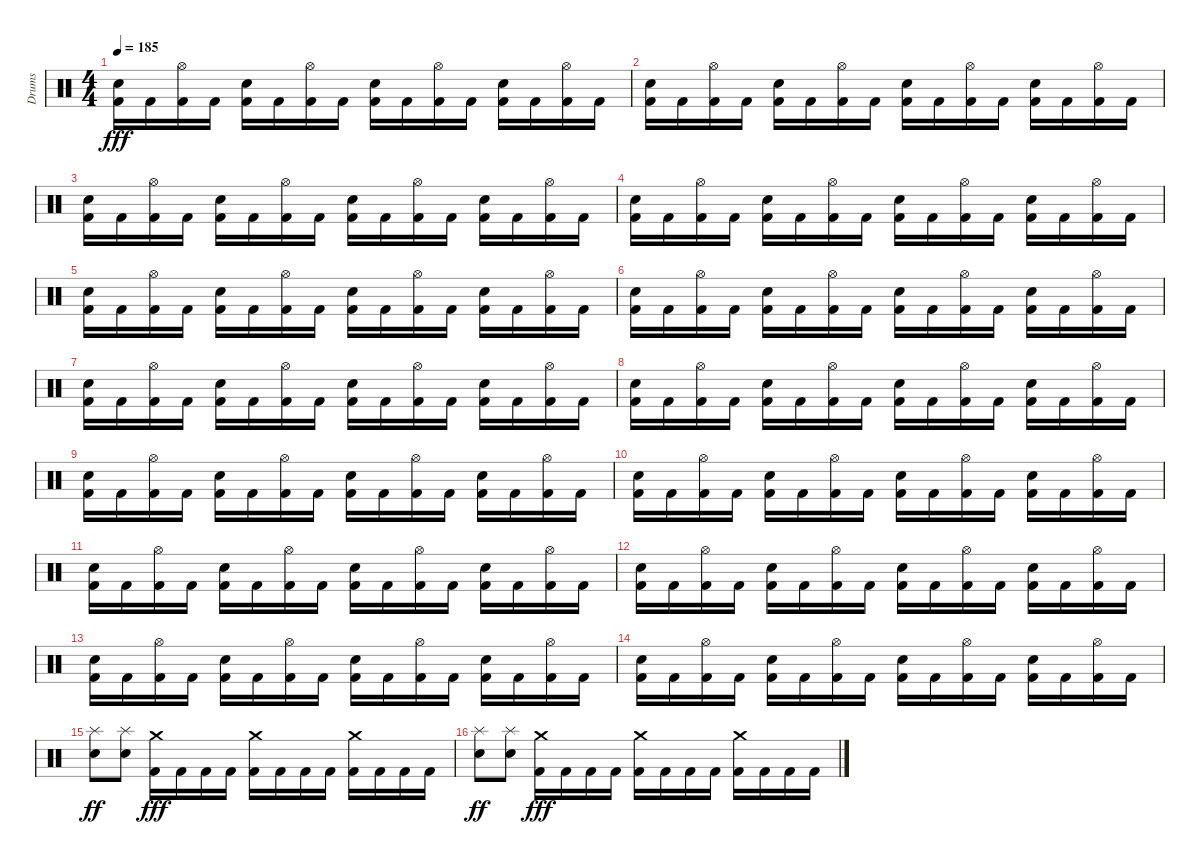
\track ("Drums" "Drums") {instrument percussion}
\staff {score}
\articulation defaults
\ts (4 4)
\tempo 185
\clef neutral
\ks c
("Electric Snare (hit)" "Kick (hit) 2").16{dy fff} "Kick (hit) 2".16 ("Hi-Hat (open)" "Kick (hit) 2").16 "Kick (hit) 2".16 ("Electric Snare (hit)" "Kick (hit) 2").16 "Kick (hit) 2".16 ("Hi-Hat (open)" "Kick (hit) 2").16 "Kick (hit) 2".16 ("Electric Snare (hit)" "Kick (hit) 2").16 "Kick (hit) 2".16 ("Hi-Hat (open)" "Kick (hit) 2").16 "Kick (hit) 2".16 ("Electric Snare (hit)" "Kick (hit) 2").16 "Kick (hit) 2".16 ("Hi-Hat (open)" "Kick (hit) 2").16 "Kick (hit) 2".16 |
("Electric Snare (hit)" "Kick (hit) 2").16 "Kick (hit) 2".16 ("Hi-Hat (open)" "Kick (hit) 2").16 "Kick (hit) 2".16 ("Electric Snare (hit)" "Kick (hit) 2").16 "Kick (hit) 2".16 ("Hi-Hat (open)" "Kick (hit) 2").16 "Kick (hit) 2".16 ("Electric Snare (hit)" "Kick (hit) 2").16 "Kick (hit) 2".16 ("Hi-Hat (open)" "Kick (hit) 2").16 "Kick (hit) 2".16 ("Electric Snare (hit)" "Kick (hit) 2").16 "Kick (hit) 2".16 ("Hi-Hat (open)" "Kick (hit) 2").16 "Kick (hit) 2".16 |
("Electric Snare (hit)" "Kick (hit) 2").16 "Kick (hit) 2".16 ("Hi-Hat (open)" "Kick (hit) 2").16 "Kick (hit) 2".16 ("Electric Snare (hit)" "Kick (hit) 2").16 "Kick (hit) 2".16 ("Hi-Hat (open)" "Kick (hit) 2").16 "Kick (hit) 2".16 ("Electric Snare (hit)" "Kick (hit) 2").16 "Kick (hit) 2".16 ("Hi-Hat (open)" "Kick (hit) 2").16 "Kick (hit) 2".16 ("Electric Snare (hit)" "Kick (hit) 2").16 "Kick (hit) 2".16 ("Hi-Hat (open)" "Kick (hit) 2").16 "Kick (hit) 2".16 |
("Electric Snare (hit)" "Kick (hit) 2").16 "Kick (hit) 2".16 ("Hi-Hat (open)" "Kick (hit) 2").16 "Kick (hit) 2".16 ("Electric Snare (hit)" "Kick (hit) 2").16 "Kick (hit) 2".16 ("Hi-Hat (open)" "Kick (hit) 2").16 "Kick (hit) 2".16 ("Electric Snare (hit)" "Kick (hit) 2").16 "Kick (hit) 2".16 ("Hi-Hat (open)" "Kick (hit) 2").16 "Kick (hit) 2".16 ("Electric Snare (hit)" "Kick (hit) 2").16 "Kick (hit) 2".16 ("Hi-Hat (open)" "Kick (hit) 2").16 "Kick (hit) 2".16 |
("Electric Snare (hit)" "Kick (hit) 2").16 "Kick (hit) 2".16 ("Hi-Hat (open)" "Kick (hit) 2").16 "Kick (hit) 2".16 ("Electric Snare (hit)" "Kick (hit) 2").16 "Kick (hit) 2".16 ("Hi-Hat (open)" "Kick (hit) 2").16 "Kick (hit) 2".16 ("Electric Snare (hit)" "Kick (hit) 2").16 "Kick (hit) 2".16 ("Hi-Hat (open)" "Kick (hit) 2").16 "Kick (hit) 2".16 ("Electric Snare (hit)" "Kick (hit) 2").16 "Kick (hit) 2".16 ("Hi-Hat (open)" "Kick (hit) 2").16 "Kick (hit) 2".16 |
("Electric Snare (hit)" "Kick (hit) 2").16 "Kick (hit) 2".16 ("Hi-Hat (open)" "Kick (hit) 2").16 "Kick (hit) 2".16 ("Electric Snare (hit)" "Kick (hit) 2").16 "Kick (hit) 2".16 ("Hi-Hat (open)" "Kick (hit) 2").16 "Kick (hit) 2".16 ("Electric Snare (hit)" "Kick (hit) 2").16 "Kick (hit) 2".16 ("Hi-Hat (open)" "Kick (hit) 2").16 "Kick (hit) 2".16 ("Electric Snare (hit)" "Kick (hit) 2").16 "Kick (hit) 2".16 ("Hi-Hat (open)" "Kick (hit) 2").16 "Kick (hit) 2".16 |
("Electric Snare (hit)" "Kick (hit) 2").16 "Kick (hit) 2".16 ("Hi-Hat (open)" "Kick (hit) 2").16 "Kick (hit) 2".16 ("Electric Snare (hit)" "Kick (hit) 2").16 "Kick (hit) 2".16 ("Hi-Hat (open)" "Kick (hit) 2").16 "Kick (hit) 2".16 ("Electric Snare (hit)" "Kick (hit) 2").16 "Kick (hit) 2".16 ("Hi-Hat (open)" "Kick (hit) 2").16 "Kick (hit) 2".16 ("Electric Snare (hit)" "Kick (hit) 2").16 "Kick (hit) 2".16 ("Hi-Hat (open)" "Kick (hit) 2").16 "Kick (hit) 2".16 |
("Electric Snare (hit)" "Kick (hit) 2").16 "Kick (hit) 2".16 ("Hi-Hat (open)" "Kick (hit) 2").16 "Kick (hit) 2".16 ("Electric Snare (hit)" "Kick (hit) 2").16 "Kick (hit) 2".16 ("Hi-Hat (open)" "Kick (hit) 2").16 "Kick (hit) 2".16 ("Electric Snare (hit)" "Kick (hit) 2").16 "Kick (hit) 2".16 ("Hi-Hat (open)" "Kick (hit) 2").16 "Kick (hit) 2".16 ("Electric Snare (hit)" "Kick (hit) 2").16 "Kick (hit) 2".16 ("Hi-Hat (open)" "Kick (hit) 2").16 "Kick (hit) 2".16 |
("Electric Snare (hit)" "Kick (hit) 2").16 "Kick (hit) 2".16 ("Hi-Hat (open)" "Kick (hit) 2").16 "Kick (hit) 2".16 ("Electric Snare (hit)" "Kick (hit) 2").16 "Kick (hit) 2".16 ("Hi-Hat (open)" "Kick (hit) 2").16 "Kick (hit) 2".16 ("Electric Snare (hit)" "Kick (hit) 2").16 "Kick (hit) 2".16 ("Hi-Hat (open)" "Kick (hit) 2").16 "Kick (hit) 2".16 ("Electric Snare (hit)" "Kick (hit) 2").16 "Kick (hit) 2".16 ("Hi-Hat (open)" "Kick (hit) 2").16 "Kick (hit) 2".16 |
("Electric Snare (hit)" "Kick (hit) 2").16 "Kick (hit) 2".16 ("Hi-Hat (open)" "Kick (hit) 2").16 "Kick (hit) 2".16 ("Electric Snare (hit)" "Kick (hit) 2").16 "Kick (hit) 2".16 ("Hi-Hat (open)" "Kick (hit) 2").16 "Kick (hit) 2".16 ("Electric Snare (hit)" "Kick (hit) 2").16 "Kick (hit) 2".16 ("Hi-Hat (open)" "Kick (hit) 2").16 "Kick (hit) 2".16 ("Electric Snare (hit)" "Kick (hit) 2").16 "Kick (hit) 2".16 ("Hi-Hat (open)" "Kick (hit) 2").16 "Kick (hit) 2".16 |
("Electric Snare (hit)" "Kick (hit) 2").16 "Kick (hit) 2".16 ("Hi-Hat (open)" "Kick (hit) 2").16 "Kick (hit) 2".16 ("Electric Snare (hit)" "Kick (hit) 2").16 "Kick (hit) 2".16 ("Hi-Hat (open)" "Kick (hit) 2").16 "Kick (hit) 2".16 ("Electric Snare (hit)" "Kick (hit) 2").16 "Kick (hit) 2".16 ("Hi-Hat (open)" "Kick (hit) 2").16 "Kick (hit) 2".16 ("Electric Snare (hit)" "Kick (hit) 2").16 "Kick (hit) 2".16 ("Hi-Hat (open)" "Kick (hit) 2").16 "Kick (hit) 2".16 |
("Electric Snare (hit)" "Kick (hit) 2").16 "Kick (hit) 2".16 ("Hi-Hat (open)" "Kick (hit) 2").16 "Kick (hit) 2".16 ("Electric Snare (hit)" "Kick (hit) 2").16 "Kick (hit) 2".16 ("Hi-Hat (open)" "Kick (hit) 2").16 "Kick (hit) 2".16 ("Electric Snare (hit)" "Kick (hit) 2").16 "Kick (hit) 2".16 ("Hi-Hat (open)" "Kick (hit) 2").16 "Kick (hit) 2".16 ("Electric Snare (hit)" "Kick (hit) 2").16 "Kick (hit) 2".16 ("Hi-Hat (open)" "Kick (hit) 2").16 "Kick (hit) 2".16 |
("Electric Snare (hit)" "Kick (hit) 2").16 "Kick (hit) 2".16 ("Hi-Hat (open)" "Kick (hit) 2").16 "Kick (hit) 2".16 ("Electric Snare (hit)" "Kick (hit) 2").16 "Kick (hit) 2".16 ("Hi-Hat (open)" "Kick (hit) 2").16 "Kick (hit) 2".16 ("Electric Snare (hit)" "Kick (hit) 2").16 "Kick (hit) 2".16 ("Hi-Hat (open)" "Kick (hit) 2").16 "Kick (hit) 2".16 ("Electric Snare (hit)" "Kick (hit) 2").16 "Kick (hit) 2".16 ("Hi-Hat (open)" "Kick (hit) 2").16 "Kick (hit) 2".16 |
("Electric Snare (hit)" "Kick (hit) 2").16 "Kick (hit) 2".16 ("Hi-Hat (open)" "Kick (hit) 2").16 "Kick (hit) 2".16 ("Electric Snare (hit)" "Kick (hit) 2").16 "Kick (hit) 2".16 ("Hi-Hat (open)" "Kick (hit) 2").16 "Kick (hit) 2".16 ("Electric Snare (hit)" "Kick (hit) 2").16 "Kick (hit) 2".16 ("Hi-Hat (open)" "Kick (hit) 2").16 "Kick (hit) 2".16 ("Electric Snare (hit)" "Kick (hit) 2").16 "Kick (hit) 2".16 ("Hi-Hat (open)" "Kick (hit) 2").16 "Kick (hit) 2".16 |
("Splash (hit)" "Electric Snare (hit)").8{dy ff} ("Splash (hit)" "Electric Snare (hit)").8 ("Kick (hit) 2" "Crash medium (hit)").16{dy fff} "Kick (hit) 2".16 "Kick (hit) 2".16 "Kick (hit) 2".16 ("Kick (hit) 2" "Crash medium (hit)").16 "Kick (hit) 2".16 "Kick (hit) 2".16 "Kick (hit) 2".16 ("Kick (hit) 2" "Crash medium (hit)").16 "Kick (hit) 2".16 "Kick (hit) 2".16 "Kick (hit) 2".16 |
("Splash (hit)" "Electric Snare (hit)").8{dy ff} ("Splash (hit)" "Electric Snare (hit)").8 ("Kick (hit) 2" "Crash medium (hit)").16{dy fff} "Kick (hit) 2".16 "Kick (hit) 2".16 "Kick (hit) 2".16 ("Kick (hit) 2" "Crash medium (hit)").16 "Kick (hit) 2".16 "Kick (hit) 2".16 "Kick (hit) 2".16 ("Kick (hit) 2" "Crash medium (hit)").16 "Kick (hit) 2".16 "Kick (hit) 2".16 "Kick (hit) 2".16
